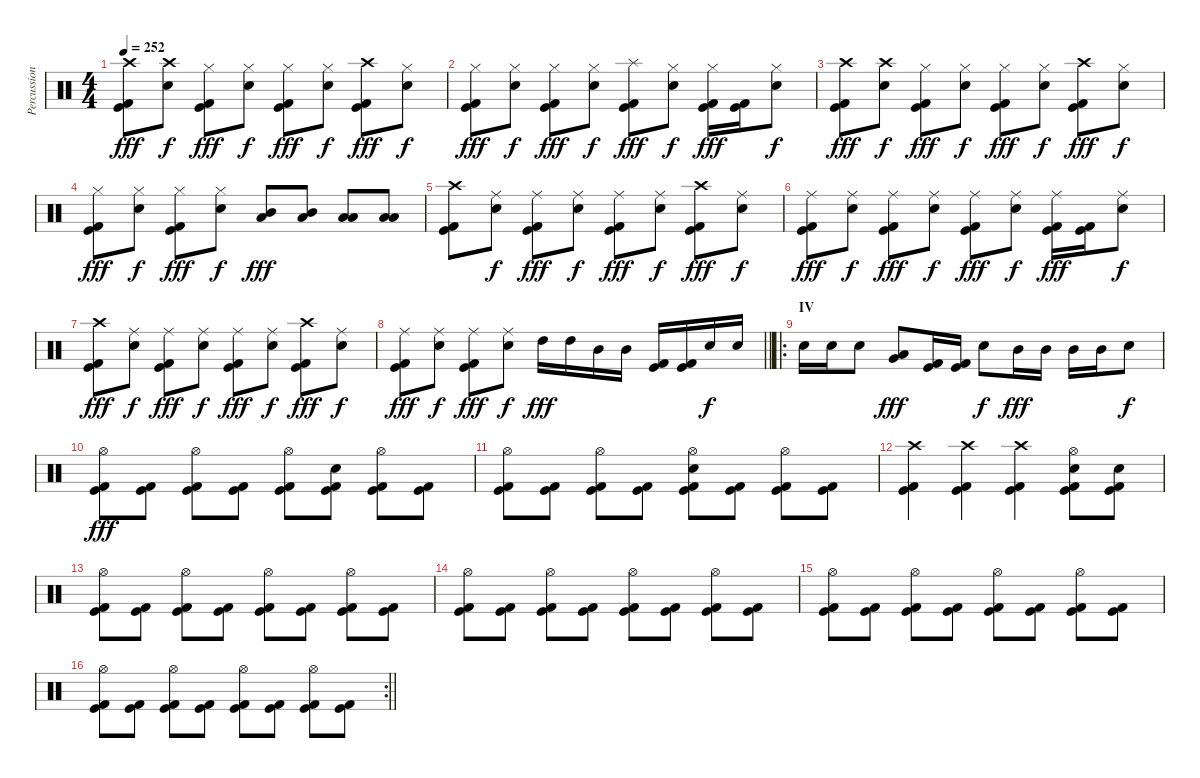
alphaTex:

\track ("Percussion" "Percussion") {mute instrument percussion}
\staff {score}
\articulation defaults
\ts (4 4)
\tempo 252
\clef neutral
\ks c
("Crash high (hit)" "Kick (hit)" "Kick (hit) 2").8{dy fff} ("Crash high (hit)" "Electric Snare (hit)").8{dy f} ("Hi-Hat (closed)" "Kick (hit)" "Kick (hit) 2").8{dy fff} ("Hi-Hat (closed)" "Electric Snare (hit)").8{dy f} ("Hi-Hat (closed)" "Kick (hit)" "Kick (hit) 2").8{dy fff} ("Hi-Hat (closed)" "Electric Snare (hit)").8{dy f} ("Crash high (hit)" "Kick (hit)" "Kick (hit) 2").8{dy fff} ("Hi-Hat (closed)" "Electric Snare (hit)").8{dy f} |
("Hi-Hat (closed)" "Kick (hit)" "Kick (hit) 2").8{dy fff} ("Hi-Hat (closed)" "Electric Snare (hit)").8{dy f} ("Hi-Hat (closed)" "Kick (hit)" "Kick (hit) 2").8{dy fff} ("Hi-Hat (closed)" "Electric Snare (hit)").8{dy f} ("Splash (hit)" "Kick (hit)" "Kick (hit) 2").8{dy fff} ("Hi-Hat (closed)" "Electric Snare (hit)").8{dy f} ("Hi-Hat (closed)" "Kick (hit)" "Kick (hit) 2").16{dy fff} ("Kick (hit)" "Kick (hit) 2").16 ("Hi-Hat (closed)" "Electric Snare (hit)").8{dy f} |
("Crash high (hit)" "Kick (hit)" "Kick (hit) 2").8{dy fff} ("Crash high (hit)" "Electric Snare (hit)").8{dy f} ("Hi-Hat (closed)" "Kick (hit)" "Kick (hit) 2").8{dy fff} ("Hi-Hat (closed)" "Electric Snare (hit)").8{dy f} ("Hi-Hat (closed)" "Kick (hit)" "Kick (hit) 2").8{dy fff} ("Hi-Hat (closed)" "Electric Snare (hit)").8{dy f} ("Crash high (hit)" "Kick (hit)" "Kick (hit) 2").8{dy fff} ("Hi-Hat (closed)" "Electric Snare (hit)").8{dy f} |
("Hi-Hat (closed)" "Kick (hit)" "Kick (hit) 2").8{dy fff} ("Hi-Hat (closed)" "Electric Snare (hit)").8{dy f} ("Hi-Hat (closed)" "Kick (hit)" "Kick (hit) 2").8{dy fff} ("Hi-Hat (closed)" "Electric Snare (hit)").8{dy f} ("Mid Tom (hit)" "Low Tom (hit)").8{dy fff} ("Mid Tom (hit)" "Low Tom (hit)").8 ("Low Tom (hit)" "Low Floor Tom (hit)").8 ("Low Tom (hit)" "Low Floor Tom (hit)").8 |
("Crash high (hit)" "Kick (hit)" "Kick (hit) 2").8 ("Ride (middle)" "Electric Snare (hit)").8{dy f} ("Ride (middle)" "Kick (hit)" "Kick (hit) 2").8{dy fff} ("Ride (middle)" "Electric Snare (hit)").8{dy f} ("Ride (middle)" "Kick (hit)" "Kick (hit) 2").8{dy fff} ("Ride (middle)" "Electric Snare (hit)").8{dy f} ("Crash high (hit)" "Kick (hit)" "Kick (hit) 2").8{dy fff} ("Ride (middle)" "Electric Snare (hit)").8{dy f} |
("Ride (middle)" "Kick (hit)" "Kick (hit) 2").8{dy fff} ("Ride (middle)" "Electric Snare (hit)").8{dy f} ("Ride (middle)" "Kick (hit)" "Kick (hit) 2").8{dy fff} ("Ride (middle)" "Electric Snare (hit)").8{dy f} ("Ride (middle)" "Kick (hit)" "Kick (hit) 2").8{dy fff} ("Ride (middle)" "Electric Snare (hit)").8{dy f} ("Ride (middle)" "Kick (hit)" "Kick (hit) 2").16{dy fff} ("Kick (hit)" "Kick (hit) 2").16 ("Ride (middle)" "Electric Snare (hit)").8{dy f} |
("Crash high (hit)" "Kick (hit)" "Kick (hit) 2").8{dy fff} ("Ride (middle)" "Electric Snare (hit)").8{dy f} ("Ride (middle)" "Kick (hit)" "Kick (hit) 2").8{dy fff} ("Ride (middle)" "Electric Snare (hit)").8{dy f} ("Ride (middle)" "Kick (hit)" "Kick (hit) 2").8{dy fff} ("Ride (middle)" "Electric Snare (hit)").8{dy f} ("Crash high (hit)" "Kick (hit)" "Kick (hit) 2").8{dy fff} ("Ride (middle)" "Electric Snare (hit)").8{dy f} |
\barLineRight lightlight
("Ride (middle)" "Kick (hit)" "Kick (hit) 2").8{dy fff} ("Ride (middle)" "Electric Snare (hit)").8{dy f} ("Ride (middle)" "Kick (hit)" "Kick (hit) 2").8{dy fff} ("Ride (middle)" "Electric Snare (hit)").8{dy f} "High Tom (hit)".16{dy fff} "High Tom (hit)".16 "Mid Tom (hit)".16 "Mid Tom (hit)".16 ("Kick (hit)" "Kick (hit) 2").16 ("Kick (hit)" "Kick (hit) 2").16 "Electric Snare (hit)".16{dy f} "Electric Snare (hit)".16 |
\ro
\section ("" "IV")
"Electric Snare (hit)".16 "Electric Snare (hit)".16 "Electric Snare (hit)".8 ("Low Tom (hit)" "Very Low Tom (hit)").8{dy fff} ("Kick (hit)" "Kick (hit) 2").16 ("Kick (hit)" "Kick (hit) 2").16 "Electric Snare (hit)".8{dy f} "Mid Tom (hit)".16{dy fff} "Mid Tom (hit)".16 "Mid Tom (hit)".16 "Mid Tom (hit)".16 "Electric Snare (hit)".8{dy f} |
("Hi-Hat (open)" "Kick (hit)" "Kick (hit) 2").8{dy fff} ("Kick (hit)" "Kick (hit) 2").8 ("Hi-Hat (open)" "Kick (hit)" "Kick (hit) 2").8 ("Kick (hit)" "Kick (hit) 2").8 ("Hi-Hat (open)" "Kick (hit)" "Kick (hit) 2").8 ("Electric Snare (hit)" "Kick (hit)" "Kick (hit) 2").8 ("Hi-Hat (open)" "Kick (hit)" "Kick (hit) 2").8 ("Kick (hit)" "Kick (hit) 2").8 |
("Hi-Hat (open)" "Kick (hit)" "Kick (hit) 2").8 ("Kick (hit)" "Kick (hit) 2").8 ("Hi-Hat (open)" "Kick (hit)" "Kick (hit) 2").8 ("Kick (hit)" "Kick (hit) 2").8 ("Hi-Hat (open)" "Electric Snare (hit)" "Kick (hit)" "Kick (hit) 2").8 ("Kick (hit)" "Kick (hit) 2").8 ("Hi-Hat (open)" "Kick (hit)" "Kick (hit) 2").8 ("Kick (hit)" "Kick (hit) 2").8 |
("Crash high (hit)" "Kick (hit)" "Kick (hit) 2").4 ("Crash high (hit)" "Kick (hit)" "Kick (hit) 2").4 ("Crash high (hit)" "Kick (hit)" "Kick (hit) 2").4 ("Hi-Hat (open)" "Electric Snare (hit)" "Kick (hit)" "Kick (hit) 2").8 ("Electric Snare (hit)" "Kick (hit)" "Kick (hit) 2").8 |
("Hi-Hat (open)" "Kick (hit)" "Kick (hit) 2").8 ("Kick (hit)" "Kick (hit) 2").8 ("Hi-Hat (open)" "Kick (hit)" "Kick (hit) 2").8 ("Kick (hit)" "Kick (hit) 2").8 ("Hi-Hat (open)" "Kick (hit)" "Kick (hit) 2").8 ("Kick (hit)" "Kick (hit) 2").8 ("Hi-Hat (open)" "Kick (hit)" "Kick (hit) 2").8 ("Kick (hit)" "Kick (hit) 2").8 |
("Hi-Hat (open)" "Kick (hit)" "Kick (hit) 2").8 ("Kick (hit)" "Kick (hit) 2").8 ("Hi-Hat (open)" "Kick (hit)" "Kick (hit) 2").8 ("Kick (hit)" "Kick (hit) 2").8 ("Hi-Hat (open)" "Kick (hit)" "Kick (hit) 2").8 ("Kick (hit)" "Kick (hit) 2").8 ("Hi-Hat (open)" "Kick (hit)" "Kick (hit) 2").8 ("Kick (hit)" "Kick (hit) 2").8 |
("Hi-Hat (open)" "Kick (hit)" "Kick (hit) 2").8 ("Kick (hit)" "Kick (hit) 2").8 ("Hi-Hat (open)" "Kick (hit)" "Kick (hit) 2").8 ("Kick (hit)" "Kick (hit) 2").8 ("Hi-Hat (open)" "Kick (hit)" "Kick (hit) 2").8 ("Kick (hit)" "Kick (hit) 2").8 ("Hi-Hat (open)" "Kick (hit)" "Kick (hit) 2").8 ("Kick (hit)" "Kick (hit) 2").8 |
\rc 2
\barLineRight lightlight
("Hi-Hat (open)" "Kick (hit)" "Kick (hit) 2").8 ("Kick (hit)" "Kick (hit) 2").8 ("Hi-Hat (open)" "Kick (hit)" "Kick (hit) 2").8 ("Kick (hit)" "Kick (hit) 2").8 ("Hi-Hat (open)" "Kick (hit)" "Kick (hit) 2").8 ("Kick (hit)" "Kick (hit) 2").8 ("Hi-Hat (open)" "Kick (hit)" "Kick (hit) 2").8 ("Kick (hit)" "Kick (hit) 2").8
